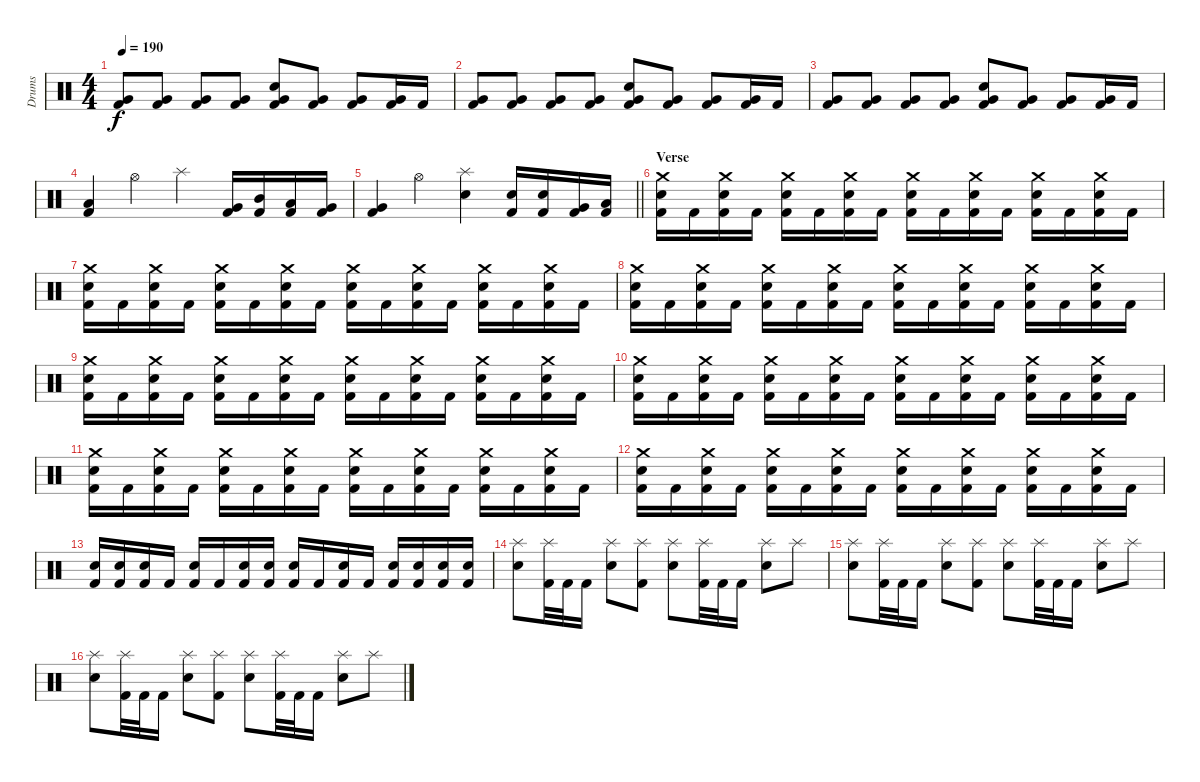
\track ("Drums" "Drums") {instrument percussion}
\staff {score}
\articulation defaults
\ts (4 4)
\tempo 190
\clef neutral
\ks c
("Very Low Tom (hit)" "Kick (hit) 2").8{dy f} ("Very Low Tom (hit)" "Kick (hit) 2").8 ("Very Low Tom (hit)" "Kick (hit) 2").8 ("Very Low Tom (hit)" "Kick (hit) 2").8 ("Very Low Tom (hit)" "Snare (hit) 2" "Kick (hit) 2").8 ("Very Low Tom (hit)" "Kick (hit) 2").8 ("Very Low Tom (hit)" "Kick (hit) 2").8 ("Very Low Tom (hit)" "Kick (hit) 2").16 "Kick (hit) 2".16 |
("Very Low Tom (hit)" "Kick (hit) 2").8 ("Very Low Tom (hit)" "Kick (hit) 2").8 ("Very Low Tom (hit)" "Kick (hit) 2").8 ("Very Low Tom (hit)" "Kick (hit) 2").8 ("Very Low Tom (hit)" "Snare (hit) 2" "Kick (hit) 2").8 ("Very Low Tom (hit)" "Kick (hit) 2").8 ("Very Low Tom (hit)" "Kick (hit) 2").8 ("Very Low Tom (hit)" "Kick (hit) 2").16 "Kick (hit) 2".16 |
("Very Low Tom (hit)" "Kick (hit) 2").8 ("Very Low Tom (hit)" "Kick (hit) 2").8 ("Very Low Tom (hit)" "Kick (hit) 2").8 ("Very Low Tom (hit)" "Kick (hit) 2").8 ("Very Low Tom (hit)" "Snare (hit) 2" "Kick (hit) 2").8 ("Very Low Tom (hit)" "Kick (hit) 2").8 ("Very Low Tom (hit)" "Kick (hit) 2").8 ("Very Low Tom (hit)" "Kick (hit) 2").16 "Kick (hit) 2".16 |
("Low Tom (hit)" "Kick (hit) 2").4 "Hi-Hat (open)".4 "Splash (hit)".4 ("Very Low Tom (hit)" "Kick (hit) 2").16 ("Mid Tom (hit)" "Kick (hit) 2").16 ("Low Tom (hit)" "Kick (hit) 2").16 ("Very Low Tom (hit)" "Kick (hit) 2").16 |
\barLineRight lightlight
("Very Low Tom (hit)" "Kick (hit) 2").4 "Hi-Hat (open)".4 ("Splash (hit)" "Snare (hit) 2").4 ("Snare (hit) 2" "Kick (hit) 2").16 ("Snare (hit) 2" "Kick (hit) 2").16 ("Very Low Tom (hit)" "Kick (hit) 2").16 ("Low Floor Tom (hit)" "Kick (hit) 2").16 |
\section ("" "Verse")
("Crash medium (hit)" "Snare (hit) 2" "Kick (hit) 2").16 "Kick (hit) 2".16 ("Crash medium (hit)" "Snare (hit) 2" "Kick (hit) 2").16 "Kick (hit) 2".16 ("Crash medium (hit)" "Snare (hit) 2" "Kick (hit) 2").16 "Kick (hit) 2".16 ("Crash medium (hit)" "Snare (hit) 2" "Kick (hit) 2").16 "Kick (hit) 2".16 ("Crash medium (hit)" "Snare (hit) 2" "Kick (hit) 2").16 "Kick (hit) 2".16 ("Crash medium (hit)" "Snare (hit) 2" "Kick (hit) 2").16 "Kick (hit) 2".16 ("Crash medium (hit)" "Snare (hit) 2" "Kick (hit) 2").16 "Kick (hit) 2".16 ("Crash medium (hit)" "Snare (hit) 2" "Kick (hit) 2").16 "Kick (hit) 2".16 |
("Crash medium (hit)" "Snare (hit) 2" "Kick (hit) 2").16 "Kick (hit) 2".16 ("Crash medium (hit)" "Snare (hit) 2" "Kick (hit) 2").16 "Kick (hit) 2".16 ("Crash medium (hit)" "Snare (hit) 2" "Kick (hit) 2").16 "Kick (hit) 2".16 ("Crash medium (hit)" "Snare (hit) 2" "Kick (hit) 2").16 "Kick (hit) 2".16 ("Crash medium (hit)" "Snare (hit) 2" "Kick (hit) 2").16 "Kick (hit) 2".16 ("Crash medium (hit)" "Snare (hit) 2" "Kick (hit) 2").16 "Kick (hit) 2".16 ("Crash medium (hit)" "Snare (hit) 2" "Kick (hit) 2").16 "Kick (hit) 2".16 ("Crash medium (hit)" "Snare (hit) 2" "Kick (hit) 2").16 "Kick (hit) 2".16 |
("Crash medium (hit)" "Snare (hit) 2" "Kick (hit) 2").16 "Kick (hit) 2".16 ("Crash medium (hit)" "Snare (hit) 2" "Kick (hit) 2").16 "Kick (hit) 2".16 ("Crash medium (hit)" "Snare (hit) 2" "Kick (hit) 2").16 "Kick (hit) 2".16 ("Crash medium (hit)" "Snare (hit) 2" "Kick (hit) 2").16 "Kick (hit) 2".16 ("Crash medium (hit)" "Snare (hit) 2" "Kick (hit) 2").16 "Kick (hit) 2".16 ("Crash medium (hit)" "Snare (hit) 2" "Kick (hit) 2").16 "Kick (hit) 2".16 ("Crash medium (hit)" "Snare (hit) 2" "Kick (hit) 2").16 "Kick (hit) 2".16 ("Crash medium (hit)" "Snare (hit) 2" "Kick (hit) 2").16 "Kick (hit) 2".16 |
("Crash medium (hit)" "Snare (hit) 2" "Kick (hit) 2").16 "Kick (hit) 2".16 ("Crash medium (hit)" "Snare (hit) 2" "Kick (hit) 2").16 "Kick (hit) 2".16 ("Crash medium (hit)" "Snare (hit) 2" "Kick (hit) 2").16 "Kick (hit) 2".16 ("Crash medium (hit)" "Snare (hit) 2" "Kick (hit) 2").16 "Kick (hit) 2".16 ("Crash medium (hit)" "Snare (hit) 2" "Kick (hit) 2").16 "Kick (hit) 2".16 ("Crash medium (hit)" "Snare (hit) 2" "Kick (hit) 2").16 "Kick (hit) 2".16 ("Crash medium (hit)" "Snare (hit) 2" "Kick (hit) 2").16 "Kick (hit) 2".16 ("Crash medium (hit)" "Snare (hit) 2" "Kick (hit) 2").16 "Kick (hit) 2".16 |
("Crash medium (hit)" "Snare (hit) 2" "Kick (hit) 2").16 "Kick (hit) 2".16 ("Crash medium (hit)" "Snare (hit) 2" "Kick (hit) 2").16 "Kick (hit) 2".16 ("Crash medium (hit)" "Snare (hit) 2" "Kick (hit) 2").16 "Kick (hit) 2".16 ("Crash medium (hit)" "Snare (hit) 2" "Kick (hit) 2").16 "Kick (hit) 2".16 ("Crash medium (hit)" "Snare (hit) 2" "Kick (hit) 2").16 "Kick (hit) 2".16 ("Crash medium (hit)" "Snare (hit) 2" "Kick (hit) 2").16 "Kick (hit) 2".16 ("Crash medium (hit)" "Snare (hit) 2" "Kick (hit) 2").16 "Kick (hit) 2".16 ("Crash medium (hit)" "Snare (hit) 2" "Kick (hit) 2").16 "Kick (hit) 2".16 |
("Crash medium (hit)" "Snare (hit) 2" "Kick (hit) 2").16 "Kick (hit) 2".16 ("Crash medium (hit)" "Snare (hit) 2" "Kick (hit) 2").16 "Kick (hit) 2".16 ("Crash medium (hit)" "Snare (hit) 2" "Kick (hit) 2").16 "Kick (hit) 2".16 ("Crash medium (hit)" "Snare (hit) 2" "Kick (hit) 2").16 "Kick (hit) 2".16 ("Crash medium (hit)" "Snare (hit) 2" "Kick (hit) 2").16 "Kick (hit) 2".16 ("Crash medium (hit)" "Snare (hit) 2" "Kick (hit) 2").16 "Kick (hit) 2".16 ("Crash medium (hit)" "Snare (hit) 2" "Kick (hit) 2").16 "Kick (hit) 2".16 ("Crash medium (hit)" "Snare (hit) 2" "Kick (hit) 2").16 "Kick (hit) 2".16 |
("Crash medium (hit)" "Snare (hit) 2" "Kick (hit) 2").16 "Kick (hit) 2".16 ("Crash medium (hit)" "Snare (hit) 2" "Kick (hit) 2").16 "Kick (hit) 2".16 ("Crash medium (hit)" "Snare (hit) 2" "Kick (hit) 2").16 "Kick (hit) 2".16 ("Crash medium (hit)" "Snare (hit) 2" "Kick (hit) 2").16 "Kick (hit) 2".16 ("Crash medium (hit)" "Snare (hit) 2" "Kick (hit) 2").16 "Kick (hit) 2".16 ("Crash medium (hit)" "Snare (hit) 2" "Kick (hit) 2").16 "Kick (hit) 2".16 ("Crash medium (hit)" "Snare (hit) 2" "Kick (hit) 2").16 "Kick (hit) 2".16 ("Crash medium (hit)" "Snare (hit) 2" "Kick (hit) 2").16 "Kick (hit) 2".16 |
("Snare (hit) 2" "Kick (hit) 2").16 ("Snare (hit) 2" "Kick (hit) 2").16 ("Snare (hit) 2" "Kick (hit) 2").16 "Kick (hit) 2".16 ("Snare (hit) 2" "Kick (hit) 2").16 "Kick (hit) 2".16 ("Snare (hit) 2" "Kick (hit) 2").16 ("Snare (hit) 2" "Kick (hit) 2").16 ("Snare (hit) 2" "Kick (hit) 2").16 "Kick (hit) 2".16 ("Snare (hit) 2" "Kick (hit) 2").16 "Kick (hit) 2".16 ("Snare (hit) 2" "Kick (hit) 2").16 ("Snare (hit) 2" "Kick (hit) 2").16 ("Snare (hit) 2" "Kick (hit) 2").16 ("Snare (hit) 2" "Kick (hit) 2").16 |
("Splash (hit)" "Snare (hit) 2").8 ("Splash (hit)" "Kick (hit) 2").32 "Kick (hit) 2".32 "Kick (hit) 2".16 ("Splash (hit)" "Snare (hit) 2").8 ("Splash (hit)" "Kick (hit) 2").8 ("Splash (hit)" "Snare (hit) 2").8 ("Splash (hit)" "Kick (hit) 2").32 "Kick (hit) 2".32 "Kick (hit) 2".16 ("Splash (hit)" "Snare (hit) 2").8 "Splash (hit)".8 |
("Splash (hit)" "Snare (hit) 2").8 ("Splash (hit)" "Kick (hit) 2").32 "Kick (hit) 2".32 "Kick (hit) 2".16 ("Splash (hit)" "Snare (hit) 2").8 ("Splash (hit)" "Kick (hit) 2").8 ("Splash (hit)" "Snare (hit) 2").8 ("Splash (hit)" "Kick (hit) 2").32 "Kick (hit) 2".32 "Kick (hit) 2".16 ("Splash (hit)" "Snare (hit) 2").8 "Splash (hit)".8 |
("Splash (hit)" "Snare (hit) 2").8 ("Splash (hit)" "Kick (hit) 2").32 "Kick (hit) 2".32 "Kick (hit) 2".16 ("Splash (hit)" "Snare (hit) 2").8 ("Splash (hit)" "Kick (hit) 2").8 ("Splash (hit)" "Snare (hit) 2").8 ("Splash (hit)" "Kick (hit) 2").32 "Kick (hit) 2".32 "Kick (hit) 2".16 ("Splash (hit)" "Snare (hit) 2").8 "Splash (hit)".8
